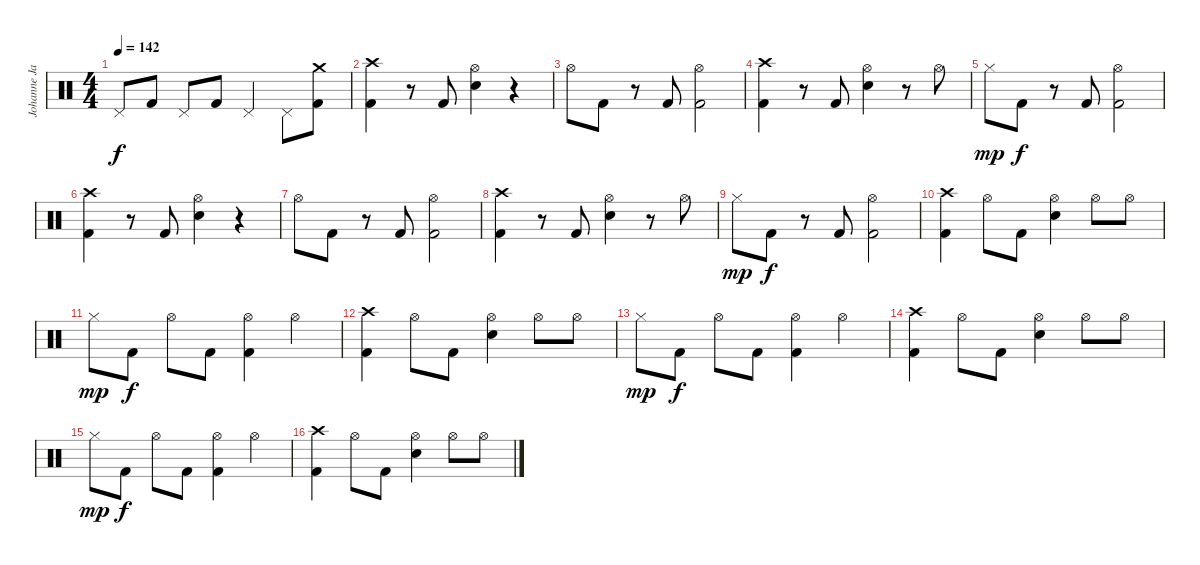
\track ("Johanne James" "Johanne Ja") {instrument percussion}
\staff {score}
\articulation defaults
\ts (4 4)
\tempo 142
\clef neutral
\ks c "Pedal Hi-Hat (hit)".8{dy f} "Kick (hit) 2".8 "Pedal Hi-Hat (hit)".8 "Kick (hit) 2".8 "Pedal Hi-Hat (hit)".4 "Pedal Hi-Hat (hit)".8
("Crash medium (hit)" "Kick (hit) 2").8 |
("Crash high (hit)" "Kick (hit) 2").4 r.8 "Kick (hit) 2".8 ("Hi-Hat (open)" "Snare (hit) 2").4 r.4 |
"Hi-Hat (open)".8 "Kick (hit) 2".8 r.8 "Kick (hit) 2".8 ("Hi-Hat (open)" "Kick (hit) 2").2 |
("Crash high (hit)" "Kick (hit) 2").4 r.8 "Kick (hit) 2".8 ("Hi-Hat (open)" "Snare (hit) 2").4 r.8 "Hi-Hat (open)".8 |
"Hi-Hat (closed)".8{dy mp} "Kick (hit) 2".8{dy f} r.8 "Kick (hit) 2".8 ("Hi-Hat (open)" "Kick (hit) 2").2 |
("Crash high (hit)" "Kick (hit) 2").4 r.8 "Kick (hit) 2".8 ("Hi-Hat (open)" "Snare (hit) 2").4 r.4 |
"Hi-Hat (open)".8 "Kick (hit) 2".8 r.8 "Kick (hit) 2".8 ("Hi-Hat (open)" "Kick (hit) 2").2 |
("Crash high (hit)" "Kick (hit) 2").4 r.8 "Kick (hit) 2".8 ("Hi-Hat (open)" "Snare (hit) 2").4 r.8 "Hi-Hat (open)".8 |
"Hi-Hat (closed)".8{dy mp} "Kick (hit) 2".8{dy f} r.8 "Kick (hit) 2".8 ("Hi-Hat (open)" "Kick (hit) 2").2 |
("Crash high (hit)" "Kick (hit) 2").4 "Hi-Hat (open)".8 "Kick (hit) 2".8 ("Hi-Hat (open)" "Snare (hit) 2").4 "Hi-Hat (open)".8 "Hi-Hat (open)".8 |
"Hi-Hat (closed)".8{dy mp} "Kick (hit) 2".8{dy f} "Hi-Hat (open)".8 "Kick (hit) 2".8 ("Hi-Hat (open)" "Kick (hit) 2").4 "Hi-Hat (open)".4 |
("Crash high (hit)" "Kick (hit) 2").4 "Hi-Hat (open)".8 "Kick (hit) 2".8 ("Hi-Hat (open)" "Snare (hit) 2").4 "Hi-Hat (open)".8 "Hi-Hat (open)".8 |
"Hi-Hat (closed)".8{dy mp} "Kick (hit) 2".8{dy f} "Hi-Hat (open)".8 "Kick (hit) 2".8 ("Hi-Hat (open)" "Kick (hit) 2").4 "Hi-Hat (open)".4 |
("Crash high (hit)" "Kick (hit) 2").4 "Hi-Hat (open)".8 "Kick (hit) 2".8 ("Hi-Hat (open)" "Snare (hit) 2").4 "Hi-Hat (open)".8 "Hi-Hat (open)".8 |
"Hi-Hat (closed)".8{dy mp} "Kick (hit) 2".8{dy f} "Hi-Hat (open)".8 "Kick (hit) 2".8 ("Hi-Hat (open)" "Kick (hit) 2").4 "Hi-Hat (open)".4 |
("Crash high (hit)" "Kick (hit) 2").4 "Hi-Hat (open)".8 "Kick (hit) 2".8 ("Hi-Hat (open)" "Snare (hit) 2").4 "Hi-Hat (open)".8 "Hi-Hat (open)".8
